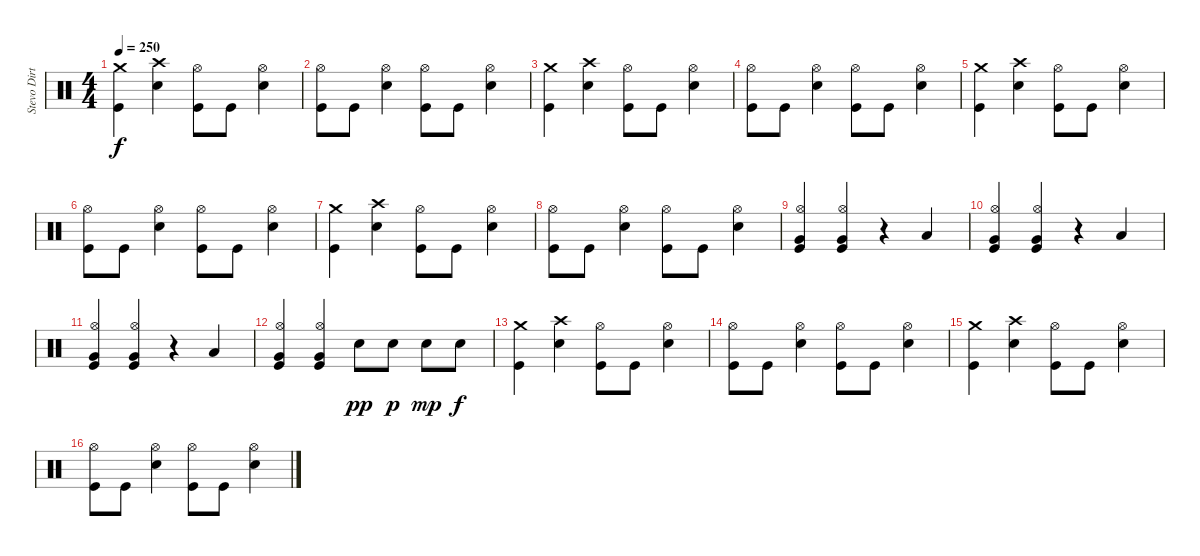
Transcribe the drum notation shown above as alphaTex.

\track ("Stevo Dirty Poo" "Stevo Dirt") {instrument percussion}
\staff {score}
\articulation defaults
\ts (4 4)
\tempo 250
\clef neutral
\ks c
("Crash medium (hit)" "Kick (hit)").4{dy f} ("Crash high (hit)" "Snare (hit) 2").4 ("Hi-Hat (open)" "Kick (hit)").8 "Kick (hit)".8 ("Hi-Hat (open)" "Snare (hit) 2").4 |
("Hi-Hat (open)" "Kick (hit)").8 "Kick (hit)".8 ("Hi-Hat (open)" "Snare (hit) 2").4 ("Hi-Hat (open)" "Kick (hit)").8 "Kick (hit)".8 ("Hi-Hat (open)" "Snare (hit) 2").4 |
("Crash medium (hit)" "Kick (hit)").4 ("Crash high (hit)" "Snare (hit) 2").4 ("Hi-Hat (open)" "Kick (hit)").8 "Kick (hit)".8 ("Hi-Hat (open)" "Snare (hit) 2").4 |
("Hi-Hat (open)" "Kick (hit)").8 "Kick (hit)".8 ("Hi-Hat (open)" "Snare (hit) 2").4 ("Hi-Hat (open)" "Kick (hit)").8 "Kick (hit)".8 ("Hi-Hat (open)" "Snare (hit) 2").4 |
("Crash medium (hit)" "Kick (hit)").4 ("Crash high (hit)" "Snare (hit) 2").4 ("Hi-Hat (open)" "Kick (hit)").8 "Kick (hit)".8 ("Hi-Hat (open)" "Snare (hit) 2").4 |
("Hi-Hat (open)" "Kick (hit)").8 "Kick (hit)".8 ("Hi-Hat (open)" "Snare (hit) 2").4 ("Hi-Hat (open)" "Kick (hit)").8 "Kick (hit)".8 ("Hi-Hat (open)" "Snare (hit) 2").4 |
("Crash medium (hit)" "Kick (hit)").4 ("Crash high (hit)" "Snare (hit) 2").4 ("Hi-Hat (open)" "Kick (hit)").8 "Kick (hit)".8 ("Hi-Hat (open)" "Snare (hit) 2").4 |
("Hi-Hat (open)" "Kick (hit)").8 "Kick (hit)".8 ("Hi-Hat (open)" "Snare (hit) 2").4 ("Hi-Hat (open)" "Kick (hit)").8 "Kick (hit)".8 ("Hi-Hat (open)" "Snare (hit) 2").4 |
("Hi-Hat (open)" "Very Low Tom (hit)" "Kick (hit)").4 ("Hi-Hat (open)" "Very Low Tom (hit)" "Kick (hit)").4 r.4 "Low Tom (hit)".4 |
("Hi-Hat (open)" "Very Low Tom (hit)" "Kick (hit)").4 ("Hi-Hat (open)" "Very Low Tom (hit)" "Kick (hit)").4 r.4 "Low Tom (hit)".4 |
("Hi-Hat (open)" "Very Low Tom (hit)" "Kick (hit)").4 ("Hi-Hat (open)" "Very Low Tom (hit)" "Kick (hit)").4 r.4 "Low Tom (hit)".4 |
("Hi-Hat (open)" "Very Low Tom (hit)" "Kick (hit)").4 ("Hi-Hat (open)" "Very Low Tom (hit)" "Kick (hit)").4 "Snare (hit) 2".8{dy pp} "Snare (hit) 2".8{dy p} "Snare (hit) 2".8{dy mp} "Snare (hit) 2".8{dy f} |
("Crash medium (hit)" "Kick (hit)").4 ("Crash high (hit)" "Snare (hit) 2").4 ("Hi-Hat (open)" "Kick (hit)").8 "Kick (hit)".8 ("Hi-Hat (open)" "Snare (hit) 2").4 |
("Hi-Hat (open)" "Kick (hit)").8 "Kick (hit)".8 ("Hi-Hat (open)" "Snare (hit) 2").4 ("Hi-Hat (open)" "Kick (hit)").8 "Kick (hit)".8 ("Hi-Hat (open)" "Snare (hit) 2").4 |
("Crash medium (hit)" "Kick (hit)").4 ("Crash high (hit)" "Snare (hit) 2").4 ("Hi-Hat (open)" "Kick (hit)").8 "Kick (hit)".8 ("Hi-Hat (open)" "Snare (hit) 2").4 |
("Hi-Hat (open)" "Kick (hit)").8 "Kick (hit)".8 ("Hi-Hat (open)" "Snare (hit) 2").4 ("Hi-Hat (open)" "Kick (hit)").8 "Kick (hit)".8 ("Hi-Hat (open)" "Snare (hit) 2").4
